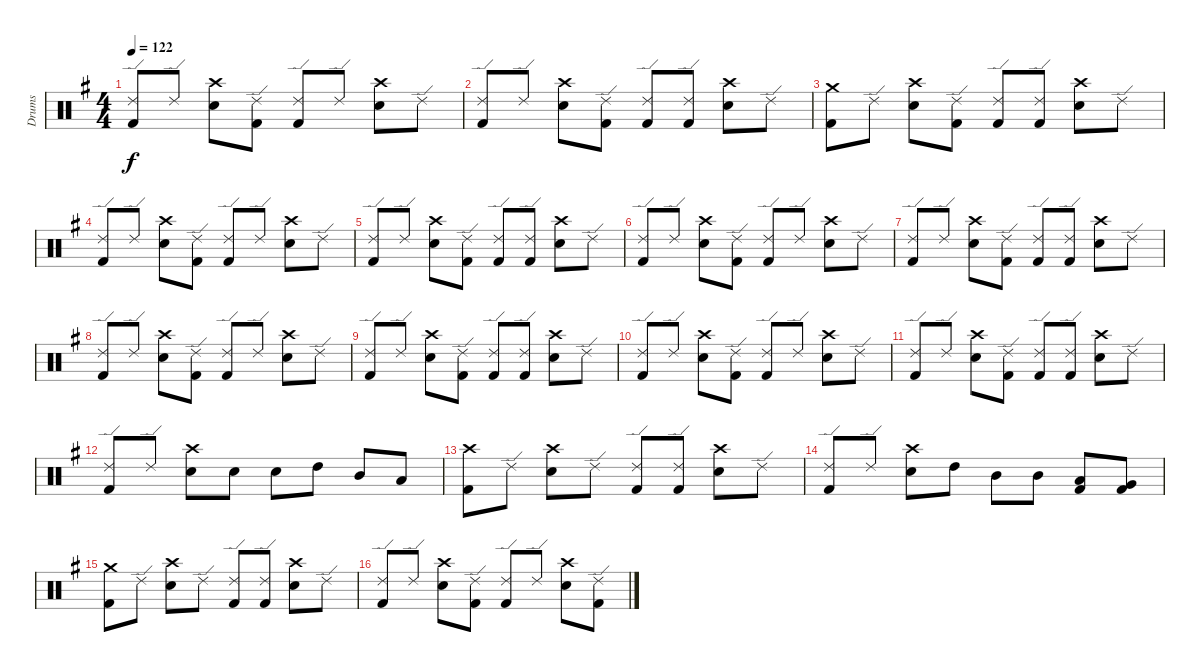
\track ("Drums" "Drums") {instrument percussion}
\staff {score}
\articulation defaults
\ts (4 4)
\tempo 122
\clef neutral
\ks g
("Ride (edge) 2" "Kick (hit) 2").8{dy f} "Ride (edge) 2".8 ("Crash high (hit)" "Electric Snare (hit)").8 ("Ride (edge) 2" "Kick (hit) 2").8 ("Ride (edge) 2" "Kick (hit) 2").8 "Ride (edge) 2".8 ("Crash high (hit)" "Electric Snare (hit)").8 "Ride (edge) 2".8 |
("Ride (edge) 2" "Kick (hit) 2").8 "Ride (edge) 2".8 ("Crash high (hit)" "Electric Snare (hit)").8 ("Ride (edge) 2" "Kick (hit) 2").8 ("Ride (edge) 2" "Kick (hit) 2").8 ("Ride (edge) 2" "Kick (hit) 2").8 ("Crash high (hit)" "Electric Snare (hit)").8 "Ride (edge) 2".8 |
("Crash medium (hit)" "Kick (hit) 2").8 "Ride (edge) 2".8 ("Crash high (hit)" "Electric Snare (hit)").8 ("Ride (edge) 2" "Kick (hit) 2").8 ("Ride (edge) 2" "Kick (hit) 2").8 ("Ride (edge) 2" "Kick (hit) 2").8 ("Crash high (hit)" "Electric Snare (hit)").8 "Ride (edge) 2".8 |
("Ride (edge) 2" "Kick (hit) 2").8 "Ride (edge) 2".8 ("Crash high (hit)" "Electric Snare (hit)").8 ("Ride (edge) 2" "Kick (hit) 2").8 ("Ride (edge) 2" "Kick (hit) 2").8 "Ride (edge) 2".8 ("Crash high (hit)" "Electric Snare (hit)").8 "Ride (edge) 2".8 |
("Ride (edge) 2" "Kick (hit) 2").8 "Ride (edge) 2".8 ("Crash high (hit)" "Electric Snare (hit)").8 ("Ride (edge) 2" "Kick (hit) 2").8 ("Ride (edge) 2" "Kick (hit) 2").8 ("Ride (edge) 2" "Kick (hit) 2").8 ("Crash high (hit)" "Electric Snare (hit)").8 "Ride (edge) 2".8 |
("Ride (edge) 2" "Kick (hit) 2").8 "Ride (edge) 2".8 ("Crash high (hit)" "Electric Snare (hit)").8 ("Ride (edge) 2" "Kick (hit) 2").8 ("Ride (edge) 2" "Kick (hit) 2").8 "Ride (edge) 2".8 ("Crash high (hit)" "Electric Snare (hit)").8 "Ride (edge) 2".8 |
("Ride (edge) 2" "Kick (hit) 2").8 "Ride (edge) 2".8 ("Crash high (hit)" "Electric Snare (hit)").8 ("Ride (edge) 2" "Kick (hit) 2").8 ("Ride (edge) 2" "Kick (hit) 2").8 ("Ride (edge) 2" "Kick (hit) 2").8 ("Crash high (hit)" "Electric Snare (hit)").8 "Ride (edge) 2".8 |
("Ride (edge) 2" "Kick (hit) 2").8 "Ride (edge) 2".8 ("Crash high (hit)" "Electric Snare (hit)").8 ("Ride (edge) 2" "Kick (hit) 2").8 ("Ride (edge) 2" "Kick (hit) 2").8 "Ride (edge) 2".8 ("Crash high (hit)" "Electric Snare (hit)").8 "Ride (edge) 2".8 |
("Ride (edge) 2" "Kick (hit) 2").8 "Ride (edge) 2".8 ("Crash high (hit)" "Electric Snare (hit)").8 ("Ride (edge) 2" "Kick (hit) 2").8 ("Ride (edge) 2" "Kick (hit) 2").8 ("Ride (edge) 2" "Kick (hit) 2").8 ("Crash high (hit)" "Electric Snare (hit)").8 "Ride (edge) 2".8 |
("Ride (edge) 2" "Kick (hit) 2").8 "Ride (edge) 2".8 ("Crash high (hit)" "Electric Snare (hit)").8 ("Ride (edge) 2" "Kick (hit) 2").8 ("Ride (edge) 2" "Kick (hit) 2").8 "Ride (edge) 2".8 ("Crash high (hit)" "Electric Snare (hit)").8 "Ride (edge) 2".8 |
("Ride (edge) 2" "Kick (hit) 2").8 "Ride (edge) 2".8 ("Crash high (hit)" "Electric Snare (hit)").8 ("Ride (edge) 2" "Kick (hit) 2").8 ("Ride (edge) 2" "Kick (hit) 2").8 ("Ride (edge) 2" "Kick (hit) 2").8 ("Crash high (hit)" "Electric Snare (hit)").8 "Ride (edge) 2".8 |
("Ride (edge) 2" "Kick (hit) 2").8 "Ride (edge) 2".8 ("Crash high (hit)" "Electric Snare (hit)").8 "Electric Snare (hit)".8 "Electric Snare (hit)".8 "High Tom (hit)".8 "Mid Tom (hit)".8 "Low Tom (hit)".8 |
("Crash high (hit)" "Kick (hit) 2").8 "Ride (edge) 2".8 ("Crash high (hit)" "Electric Snare (hit)").8 "Ride (edge) 2".8 ("Ride (edge) 2" "Kick (hit) 2").8 ("Ride (edge) 2" "Kick (hit) 2").8 ("Crash high (hit)" "Electric Snare (hit)").8 "Ride (edge) 2".8 |
("Ride (edge) 2" "Kick (hit) 2").8 "Ride (edge) 2".8 ("Crash high (hit)" "Electric Snare (hit)").8 "High Tom (hit)".8 "Mid Tom (hit)".8 "Mid Tom (hit)".8 ("Low Tom (hit)" "Kick (hit) 2").8 ("Very Low Tom (hit)" "Kick (hit) 2").8 |
("Crash medium (hit)" "Kick (hit) 2").8 "Ride (edge) 2".8 ("Crash high (hit)" "Electric Snare (hit)").8 "Ride (edge) 2".8 ("Ride (edge) 2" "Kick (hit) 2").8 ("Ride (edge) 2" "Kick (hit) 2").8 ("Crash high (hit)" "Electric Snare (hit)").8 "Ride (edge) 2".8 |
("Ride (edge) 2" "Kick (hit) 2").8 "Ride (edge) 2".8 ("Crash high (hit)" "Electric Snare (hit)").8 ("Ride (edge) 2" "Kick (hit) 2").8 ("Ride (edge) 2" "Kick (hit) 2").8 "Ride (edge) 2".8 ("Crash high (hit)" "Electric Snare (hit)").8 ("Ride (edge) 2" "Kick (hit) 2").8
